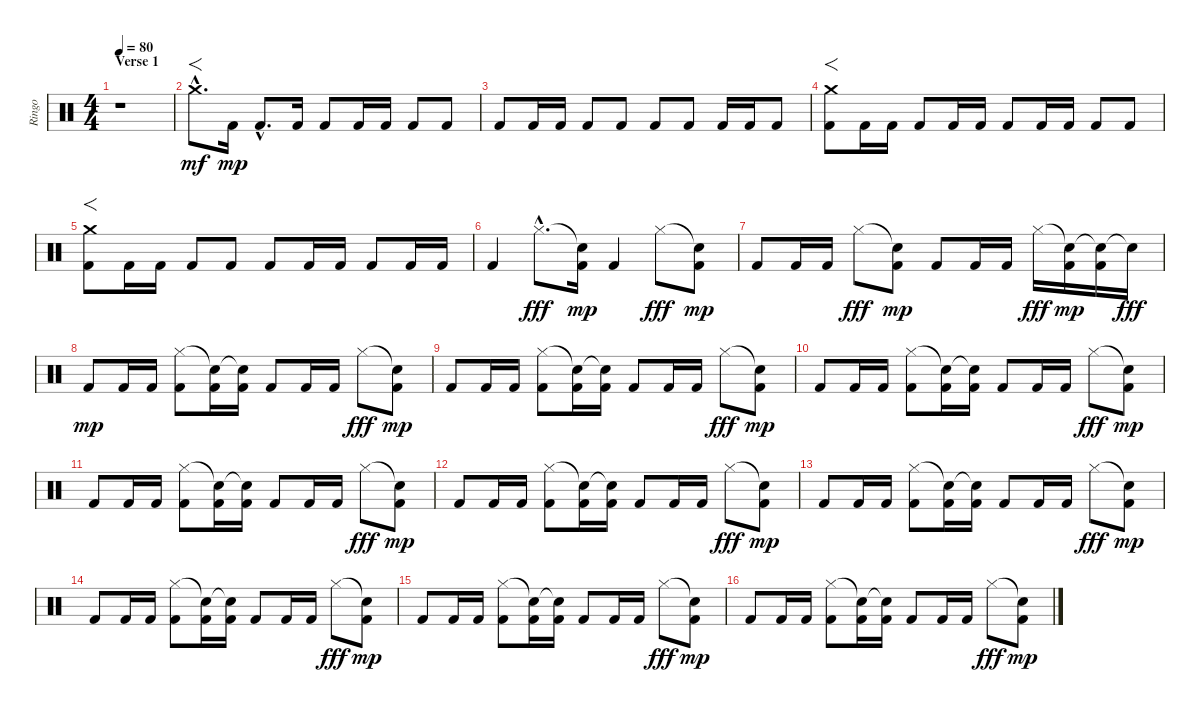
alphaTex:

\track ("Ringo" "Ringo") {instrument percussion}
\staff {score}
\articulation defaults
\ts (4 4)
\section ("" "Verse 1                                                                                             ")
\tempo 80
\clef neutral
\ks c
r.1{dy mf} |
"Crash medium (hit)"{hac}.8{f d} "Kick (hit) 2".16{dy mp} "Kick (hit) 2"{hac}.8{d} "Kick (hit) 2".16 "Kick (hit) 2".8 "Kick (hit) 2".16 "Kick (hit) 2".16 "Kick (hit) 2".8 "Kick (hit) 2".8 |
"Kick (hit) 2".8 "Kick (hit) 2".16 "Kick (hit) 2".16 "Kick (hit) 2".8 "Kick (hit) 2".8 "Kick (hit) 2".8 "Kick (hit) 2".8 "Kick (hit) 2".16 "Kick (hit) 2".16 "Kick (hit) 2".8 |
("Crash medium (hit)" "Kick (hit) 2").8{f} "Kick (hit) 2".16 "Kick (hit) 2".16 "Kick (hit) 2".8 "Kick (hit) 2".16 "Kick (hit) 2".16 "Kick (hit) 2".8 "Kick (hit) 2".16 "Kick (hit) 2".16 "Kick (hit) 2".8 "Kick (hit) 2".8 |
("Crash medium (hit)" "Kick (hit) 2").8{f} "Kick (hit) 2".16 "Kick (hit) 2".16 "Kick (hit) 2".8 "Kick (hit) 2".8 "Kick (hit) 2".8 "Kick (hit) 2".16 "Kick (hit) 2".16 "Kick (hit) 2".8 "Kick (hit) 2".16 "Kick (hit) 2".16 |
"Kick (hit) 2".4 "Hi-Hat (closed)"{hac}.8{d dy fff} ("Snare (hit)"{t} "Kick (hit) 2").16{dy mp} "Kick (hit) 2".4 "Hi-Hat (closed)".8{dy fff} ("Snare (hit)"{t} "Kick (hit) 2").8{dy mp} |
"Kick (hit) 2".8 "Kick (hit) 2".16 "Kick (hit) 2".16 "Hi-Hat (closed)".8{dy fff} ("Snare (hit)"{t} "Kick (hit) 2").8{dy mp} "Kick (hit) 2".8 "Kick (hit) 2".16 "Kick (hit) 2".16 "Hi-Hat (closed)".16{dy fff} ("Snare (hit)"{t} "Kick (hit) 2").16{dy mp} ("Snare (hit)"{t} "Kick (hit) 2").16 "Snare (hit)"{t}.16{dy fff} |
"Kick (hit) 2".8{dy mp} "Kick (hit) 2".16 "Kick (hit) 2".16 ("Hi-Hat (closed)" "Kick (hit) 2").8 ("Snare (hit)"{t} "Kick (hit) 2").16 ("Snare (hit)"{t} "Kick (hit) 2").16 "Kick (hit) 2".8 "Kick (hit) 2".16 "Kick (hit) 2".16 "Hi-Hat (closed)".8{dy fff} ("Snare (hit)"{t} "Kick (hit) 2").8{dy mp} |
"Kick (hit) 2".8 "Kick (hit) 2".16 "Kick (hit) 2".16 ("Hi-Hat (closed)" "Kick (hit) 2").8 ("Snare (hit)"{t} "Kick (hit) 2").16 ("Snare (hit)"{t} "Kick (hit) 2").16 "Kick (hit) 2".8 "Kick (hit) 2".16 "Kick (hit) 2".16 "Hi-Hat (closed)".8{dy fff} ("Snare (hit)"{t} "Kick (hit) 2").8{dy mp} |
"Kick (hit) 2".8 "Kick (hit) 2".16 "Kick (hit) 2".16 ("Hi-Hat (closed)" "Kick (hit) 2").8 ("Snare (hit)"{t} "Kick (hit) 2").16 ("Snare (hit)"{t} "Kick (hit) 2").16 "Kick (hit) 2".8 "Kick (hit) 2".16 "Kick (hit) 2".16 "Hi-Hat (closed)".8{dy fff} ("Snare (hit)"{t} "Kick (hit) 2").8{dy mp} |
"Kick (hit) 2".8 "Kick (hit) 2".16 "Kick (hit) 2".16 ("Hi-Hat (closed)" "Kick (hit) 2").8 ("Snare (hit)"{t} "Kick (hit) 2").16 ("Snare (hit)"{t} "Kick (hit) 2").16 "Kick (hit) 2".8 "Kick (hit) 2".16 "Kick (hit) 2".16 "Hi-Hat (closed)".8{dy fff} ("Snare (hit)"{t} "Kick (hit) 2").8{dy mp} |
"Kick (hit) 2".8 "Kick (hit) 2".16 "Kick (hit) 2".16 ("Hi-Hat (closed)" "Kick (hit) 2").8 ("Snare (hit)"{t} "Kick (hit) 2").16 ("Snare (hit)"{t} "Kick (hit) 2").16 "Kick (hit) 2".8 "Kick (hit) 2".16 "Kick (hit) 2".16 "Hi-Hat (closed)".8{dy fff} ("Snare (hit)"{t} "Kick (hit) 2").8{dy mp} |
"Kick (hit) 2".8 "Kick (hit) 2".16 "Kick (hit) 2".16 ("Hi-Hat (closed)" "Kick (hit) 2").8 ("Snare (hit)"{t} "Kick (hit) 2").16 ("Snare (hit)"{t} "Kick (hit) 2").16 "Kick (hit) 2".8 "Kick (hit) 2".16 "Kick (hit) 2".16 "Hi-Hat (closed)".8{dy fff} ("Snare (hit)"{t} "Kick (hit) 2").8{dy mp} |
"Kick (hit) 2".8 "Kick (hit) 2".16 "Kick (hit) 2".16 ("Hi-Hat (closed)" "Kick (hit) 2").8 ("Snare (hit)"{t} "Kick (hit) 2").16 ("Snare (hit)"{t} "Kick (hit) 2").16 "Kick (hit) 2".8 "Kick (hit) 2".16 "Kick (hit) 2".16 "Hi-Hat (closed)".8{dy fff} ("Snare (hit)"{t} "Kick (hit) 2").8{dy mp} |
"Kick (hit) 2".8 "Kick (hit) 2".16 "Kick (hit) 2".16 ("Hi-Hat (closed)" "Kick (hit) 2").8 ("Snare (hit)"{t} "Kick (hit) 2").16 ("Snare (hit)"{t} "Kick (hit) 2").16 "Kick (hit) 2".8 "Kick (hit) 2".16 "Kick (hit) 2".16 "Hi-Hat (closed)".8{dy fff} ("Snare (hit)"{t} "Kick (hit) 2").8{dy mp} |
"Kick (hit) 2".8 "Kick (hit) 2".16 "Kick (hit) 2".16 ("Hi-Hat (closed)" "Kick (hit) 2").8 ("Snare (hit)"{t} "Kick (hit) 2").16 ("Snare (hit)"{t} "Kick (hit) 2").16 "Kick (hit) 2".8 "Kick (hit) 2".16 "Kick (hit) 2".16 "Hi-Hat (closed)".8{dy fff} ("Snare (hit)"{t} "Kick (hit) 2").8{dy mp}
